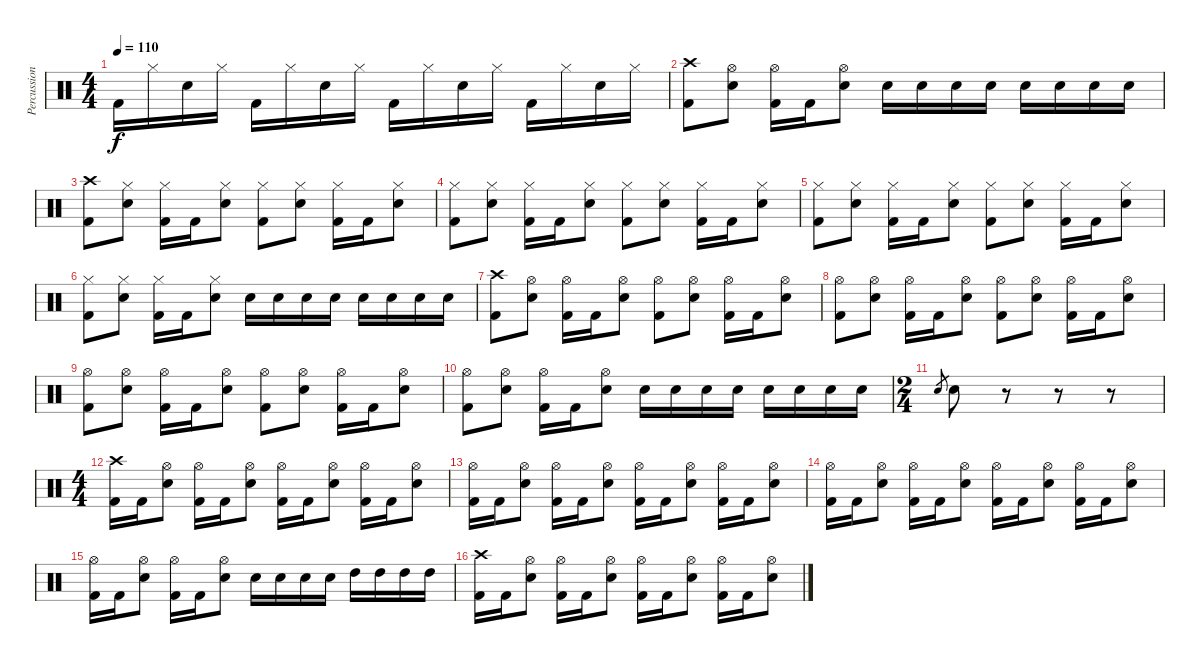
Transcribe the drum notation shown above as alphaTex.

\track ("Percussion" "Percussion") {instrument percussion}
\staff {score}
\articulation defaults
\ts (4 4)
\tempo 110
\clef neutral
\ks c "Kick (hit) 2".16{dy f} "Hi-Hat (closed)".16 "Electric Snare (hit)".16 "Hi-Hat (closed)".16 "Kick (hit) 2".16 "Hi-Hat (closed)".16 "Electric Snare (hit)".16 "Hi-Hat (closed)".16 "Kick (hit) 2".16 "Hi-Hat (closed)".16 "Electric Snare (hit)".16 "Hi-Hat (closed)".16 "Kick (hit) 2".16 "Hi-Hat (closed)".16 "Electric Snare (hit)".16 "Hi-Hat (closed)".16
|
("Crash high (hit)" "Kick (hit) 2").8 ("Hi-Hat (open)" "Electric Snare (hit)").8 ("Hi-Hat (open)" "Kick (hit) 2").16 "Kick (hit) 2".16 ("Hi-Hat (open)" "Electric Snare (hit)").8 "Electric Snare (hit)".16 "Electric Snare (hit)".16 "Electric Snare (hit)".16 "Electric Snare (hit)".16 "Electric Snare (hit)".16 "Electric Snare (hit)".16 "Electric Snare (hit)".16 "Electric Snare (hit)".16 |
("Crash high (hit)" "Kick (hit) 2").8 ("Hi-Hat (closed)" "Electric Snare (hit)").8 ("Hi-Hat (closed)" "Kick (hit) 2").16 "Kick (hit) 2".16 ("Hi-Hat (closed)" "Electric Snare (hit)").8 ("Hi-Hat (closed)" "Kick (hit) 2").8 ("Hi-Hat (closed)" "Electric Snare (hit)").8 ("Hi-Hat (closed)" "Kick (hit) 2").16 "Kick (hit) 2".16 ("Hi-Hat (closed)" "Electric Snare (hit)").8 |
("Hi-Hat (closed)" "Kick (hit) 2").8 ("Hi-Hat (closed)" "Electric Snare (hit)").8 ("Hi-Hat (closed)" "Kick (hit) 2").16 "Kick (hit) 2".16 ("Hi-Hat (closed)" "Electric Snare (hit)").8 ("Hi-Hat (closed)" "Kick (hit) 2").8 ("Hi-Hat (closed)" "Electric Snare (hit)").8 ("Hi-Hat (closed)" "Kick (hit) 2").16 "Kick (hit) 2".16 ("Hi-Hat (closed)" "Electric Snare (hit)").8 |
("Hi-Hat (closed)" "Kick (hit) 2").8 ("Hi-Hat (closed)" "Electric Snare (hit)").8 ("Hi-Hat (closed)" "Kick (hit) 2").16 "Kick (hit) 2".16 ("Hi-Hat (closed)" "Electric Snare (hit)").8 ("Hi-Hat (closed)" "Kick (hit) 2").8 ("Hi-Hat (closed)" "Electric Snare (hit)").8 ("Hi-Hat (closed)" "Kick (hit) 2").16 "Kick (hit) 2".16 ("Hi-Hat (closed)" "Electric Snare (hit)").8 |
("Hi-Hat (closed)" "Kick (hit) 2").8 ("Hi-Hat (closed)" "Electric Snare (hit)").8 ("Hi-Hat (closed)" "Kick (hit) 2").16 "Kick (hit) 2".16 ("Hi-Hat (closed)" "Electric Snare (hit)").8 "Electric Snare (hit)".16 "Electric Snare (hit)".16 "Electric Snare (hit)".16 "Electric Snare (hit)".16 "Electric Snare (hit)".16 "Electric Snare (hit)".16 "Electric Snare (hit)".16 "Electric Snare (hit)".16 |
("Crash high (hit)" "Kick (hit) 2").8 ("Hi-Hat (open)" "Electric Snare (hit)").8 ("Hi-Hat (open)" "Kick (hit) 2").16 "Kick (hit) 2".16 ("Hi-Hat (open)" "Electric Snare (hit)").8 ("Hi-Hat (open)" "Kick (hit) 2").8 ("Hi-Hat (open)" "Electric Snare (hit)").8 ("Hi-Hat (open)" "Kick (hit) 2").16 "Kick (hit) 2".16 ("Hi-Hat (open)" "Electric Snare (hit)").8 |
("Hi-Hat (open)" "Kick (hit) 2").8 ("Hi-Hat (open)" "Electric Snare (hit)").8 ("Hi-Hat (open)" "Kick (hit) 2").16 "Kick (hit) 2".16 ("Hi-Hat (open)" "Electric Snare (hit)").8 ("Hi-Hat (open)" "Kick (hit) 2").8 ("Hi-Hat (open)" "Electric Snare (hit)").8 ("Hi-Hat (open)" "Kick (hit) 2").16 "Kick (hit) 2".16 ("Hi-Hat (open)" "Electric Snare (hit)").8 |
("Hi-Hat (open)" "Kick (hit) 2").8 ("Hi-Hat (open)" "Electric Snare (hit)").8 ("Hi-Hat (open)" "Kick (hit) 2").16 "Kick (hit) 2".16 ("Hi-Hat (open)" "Electric Snare (hit)").8 ("Hi-Hat (open)" "Kick (hit) 2").8 ("Hi-Hat (open)" "Electric Snare (hit)").8 ("Hi-Hat (open)" "Kick (hit) 2").16 "Kick (hit) 2".16 ("Hi-Hat (open)" "Electric Snare (hit)").8 |
("Hi-Hat (open)" "Kick (hit) 2").8 ("Hi-Hat (open)" "Electric Snare (hit)").8 ("Hi-Hat (open)" "Kick (hit) 2").16 "Kick (hit) 2".16 ("Hi-Hat (open)" "Electric Snare (hit)").8 "Electric Snare (hit)".16 "Electric Snare (hit)".16 "Electric Snare (hit)".16 "Electric Snare (hit)".16 "Electric Snare (hit)".16 "Electric Snare (hit)".16 "Electric Snare (hit)".16 "Electric Snare (hit)".16 |
\ts (2 4)
"Electric Snare (hit)".8{gr} "Electric Snare (hit)".8 r.8 r.8 r.8 |
\ts (4 4)
("Crash high (hit)" "Kick (hit) 2").16 "Kick (hit) 2".16 ("Hi-Hat (open)" "Electric Snare (hit)").8 ("Hi-Hat (open)" "Kick (hit) 2").16 "Kick (hit) 2".16 ("Hi-Hat (open)" "Electric Snare (hit)").8 ("Hi-Hat (open)" "Kick (hit) 2").16 "Kick (hit) 2".16 ("Hi-Hat (open)" "Electric Snare (hit)").8 ("Hi-Hat (open)" "Kick (hit) 2").16 "Kick (hit) 2".16 ("Hi-Hat (open)" "Electric Snare (hit)").8 |
("Hi-Hat (open)" "Kick (hit) 2").16 "Kick (hit) 2".16 ("Hi-Hat (open)" "Electric Snare (hit)").8 ("Hi-Hat (open)" "Kick (hit) 2").16 "Kick (hit) 2".16 ("Hi-Hat (open)" "Electric Snare (hit)").8 ("Hi-Hat (open)" "Kick (hit) 2").16 "Kick (hit) 2".16 ("Hi-Hat (open)" "Electric Snare (hit)").8 ("Hi-Hat (open)" "Kick (hit) 2").16 "Kick (hit) 2".16 ("Hi-Hat (open)" "Electric Snare (hit)").8 |
("Hi-Hat (open)" "Kick (hit) 2").16 "Kick (hit) 2".16 ("Hi-Hat (open)" "Electric Snare (hit)").8 ("Hi-Hat (open)" "Kick (hit) 2").16 "Kick (hit) 2".16 ("Hi-Hat (open)" "Electric Snare (hit)").8 ("Hi-Hat (open)" "Kick (hit) 2").16 "Kick (hit) 2".16 ("Hi-Hat (open)" "Electric Snare (hit)").8 ("Hi-Hat (open)" "Kick (hit) 2").16 "Kick (hit) 2".16 ("Hi-Hat (open)" "Electric Snare (hit)").8 |
("Hi-Hat (open)" "Kick (hit) 2").16 "Kick (hit) 2".16 ("Hi-Hat (open)" "Electric Snare (hit)").8 ("Hi-Hat (open)" "Kick (hit) 2").16 "Kick (hit) 2".16 ("Hi-Hat (open)" "Electric Snare (hit)").8 "Electric Snare (hit)".16 "Electric Snare (hit)".16 "Electric Snare (hit)".16 "Electric Snare (hit)".16 "High Tom (hit)".16 "High Tom (hit)".16 "High Tom (hit)".16 "High Tom (hit)".16 |
("Crash high (hit)" "Kick (hit) 2").16 "Kick (hit) 2".16 ("Hi-Hat (open)" "Electric Snare (hit)").8 ("Hi-Hat (open)" "Kick (hit) 2").16 "Kick (hit) 2".16 ("Hi-Hat (open)" "Electric Snare (hit)").8 ("Hi-Hat (open)" "Kick (hit) 2").16 "Kick (hit) 2".16 ("Hi-Hat (open)" "Electric Snare (hit)").8 ("Hi-Hat (open)" "Kick (hit) 2").16 "Kick (hit) 2".16 ("Hi-Hat (open)" "Electric Snare (hit)").8
